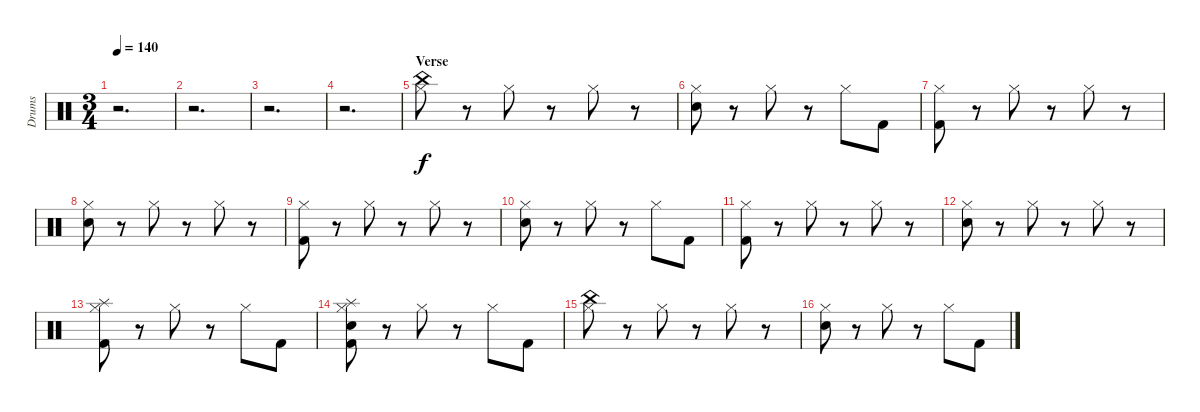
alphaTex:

\track ("Drums" "Drums") {instrument percussion}
\staff {score}
\articulation defaults
\ts (3 4)
\tempo 140
\clef neutral
\ks c
r.2{d dy f} |
r.2{d} |
r.2{d} |
r.2{d} |
\section ("" "Verse")
("China (hit)" "Hi-Hat (closed)").8 r.8 "Hi-Hat (closed)".8 r.8 "Hi-Hat (closed)".8 r.8 |
("Hi-Hat (closed)" "Snare (hit) 2").8 r.8 "Hi-Hat (closed)".8 r.8 "Hi-Hat (closed)".8 "Kick (hit) 2".8 |
("Hi-Hat (closed)" "Kick (hit) 2").8 r.8 "Hi-Hat (closed)".8 r.8 "Hi-Hat (closed)".8 r.8 |
("Hi-Hat (closed)" "Snare (hit) 2").8 r.8 "Hi-Hat (closed)".8 r.8 "Hi-Hat (closed)".8 r.8 |
("Hi-Hat (closed)" "Kick (hit) 2").8 r.8 "Hi-Hat (closed)".8 r.8 "Hi-Hat (closed)".8 r.8 |
("Hi-Hat (closed)" "Snare (hit) 2").8 r.8 "Hi-Hat (closed)".8 r.8 "Hi-Hat (closed)".8 "Kick (hit) 2".8 |
("Hi-Hat (closed)" "Kick (hit) 2").8 r.8 "Hi-Hat (closed)".8 r.8 "Hi-Hat (closed)".8 r.8 |
("Hi-Hat (closed)" "Snare (hit) 2").8 r.8 "Hi-Hat (closed)".8 r.8 "Hi-Hat (closed)".8 r.8 |
("Splash (hit)" "Hi-Hat (closed)" "Kick (hit) 2").8 r.8 "Hi-Hat (closed)".8 r.8 "Hi-Hat (closed)".8 "Kick (hit) 2".8 |
("Splash (hit)" "Hi-Hat (closed)" "Snare (hit) 2" "Kick (hit) 2").8 r.8 "Hi-Hat (closed)".8 r.8 "Hi-Hat (closed)".8 "Kick (hit) 2".8 |
("China (hit)" "Hi-Hat (closed)").8 r.8 "Hi-Hat (closed)".8 r.8 "Hi-Hat (closed)".8 r.8 |
("Hi-Hat (closed)" "Snare (hit) 2").8 r.8 "Hi-Hat (closed)".8 r.8 "Hi-Hat (closed)".8 "Kick (hit) 2".8
